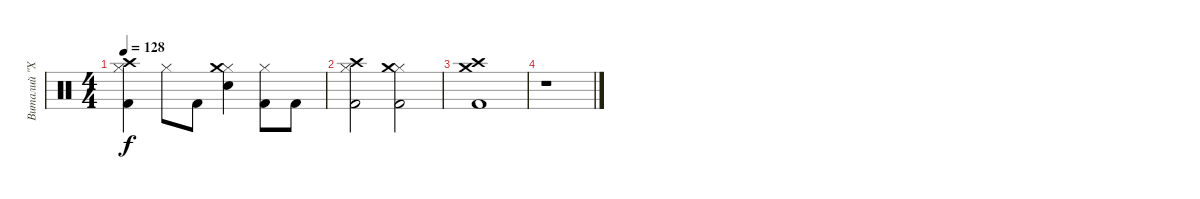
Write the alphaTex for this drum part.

\track ("Виталий \"Хамер\" Лядов" "Виталий \"Х") {instrument percussion}
\staff {score}
\articulation defaults
\ts (4 4)
\tempo 128
\clef neutral
\ks c
("Kick (hit) 2" "Hi-Hat (closed)" "Crash high (hit)").4{dy f} "Hi-Hat (closed)".8 "Kick (hit) 2".8 ("Electric Snare (hit)" "Hi-Hat (closed)" "Crash medium (hit)").4 ("Kick (hit) 2" "Hi-Hat (closed)").8 "Kick (hit) 2".8 |
("Kick (hit) 2" "Hi-Hat (closed)" "Crash high (hit)").2 ("Kick (hit) 2" "Hi-Hat (closed)" "Crash medium (hit)").2 |
("Kick (hit) 2" "Crash high (hit)" "Crash medium (hit)").1 |
r.1
